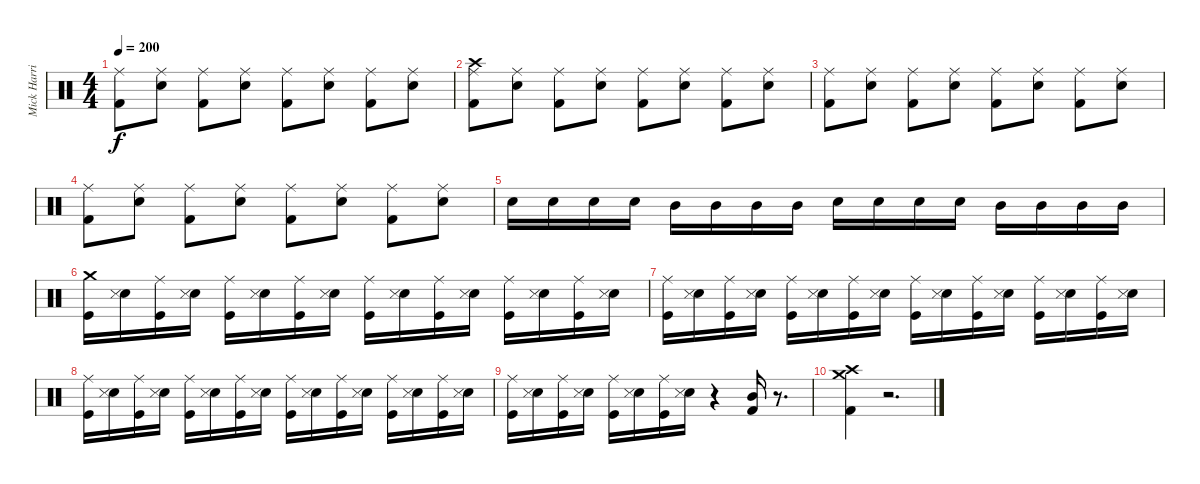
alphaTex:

\track ("Mick Harris (Drums)" "Mick Harri") {instrument percussion}
\staff {score}
\articulation defaults
\ts (4 4)
\tempo 200
\clef neutral
\ks c
("Kick (hit) 2" "Ride (middle)").8{dy f} ("Electric Snare (hit)" "Ride (middle)").8 ("Kick (hit) 2" "Ride (middle)").8 ("Electric Snare (hit)" "Ride (middle)").8 ("Kick (hit) 2" "Ride (middle)").8 ("Electric Snare (hit)" "Ride (middle)").8 ("Kick (hit) 2" "Ride (middle)").8 ("Electric Snare (hit)" "Ride (middle)").8 |
("Kick (hit) 2" "Crash high (hit)" "Ride (middle)").8 ("Electric Snare (hit)" "Ride (middle)").8 ("Kick (hit) 2" "Ride (middle)").8 ("Electric Snare (hit)" "Ride (middle)").8 ("Kick (hit) 2" "Ride (middle)").8 ("Electric Snare (hit)" "Ride (middle)").8 ("Kick (hit) 2" "Ride (middle)").8 ("Electric Snare (hit)" "Ride (middle)").8 |
("Kick (hit) 2" "Ride (middle)").8 ("Electric Snare (hit)" "Ride (middle)").8 ("Kick (hit) 2" "Ride (middle)").8 ("Electric Snare (hit)" "Ride (middle)").8 ("Kick (hit) 2" "Ride (middle)").8 ("Electric Snare (hit)" "Ride (middle)").8 ("Kick (hit) 2" "Ride (middle)").8 ("Electric Snare (hit)" "Ride (middle)").8 |
("Kick (hit) 2" "Ride (middle)").8 ("Electric Snare (hit)" "Ride (middle)").8 ("Kick (hit) 2" "Ride (middle)").8 ("Electric Snare (hit)" "Ride (middle)").8 ("Kick (hit) 2" "Ride (middle)").8 ("Electric Snare (hit)" "Ride (middle)").8 ("Kick (hit) 2" "Ride (middle)").8 ("Electric Snare (hit)" "Ride (middle)").8 |
"Electric Snare (hit)".16 "Electric Snare (hit)".16 "Electric Snare (hit)".16 "Electric Snare (hit)".16 "Mid Tom (hit)".16 "Mid Tom (hit)".16 "Mid Tom (hit)".16 "Mid Tom (hit)".16 "Electric Snare (hit)".16 "Electric Snare (hit)".16 "Electric Snare (hit)".16 "Electric Snare (hit)".16 "Mid Tom (hit)".16 "Mid Tom (hit)".16 "Mid Tom (hit)".16 "Mid Tom (hit)".16 |
("Kick (hit)" "Crash medium (hit)").16 ("Electric Snare (hit)" "Snare (side stick) 3").16 ("Kick (hit)" "Ride (middle)").16 ("Electric Snare (hit)" "Snare (side stick) 3").16 ("Kick (hit)" "Ride (middle)").16 ("Electric Snare (hit)" "Snare (side stick) 3").16 ("Kick (hit)" "Ride (middle)").16 ("Electric Snare (hit)" "Snare (side stick) 3").16 ("Kick (hit)" "Ride (middle)").16 ("Electric Snare (hit)" "Snare (side stick) 3").16 ("Kick (hit)" "Ride (middle)").16 ("Electric Snare (hit)" "Snare (side stick) 3").16 ("Kick (hit)" "Ride (middle)").16 ("Electric Snare (hit)" "Snare (side stick) 3").16 ("Kick (hit)" "Ride (middle)").16 ("Electric Snare (hit)" "Snare (side stick) 3").16 |
("Kick (hit)" "Ride (middle)").16 ("Electric Snare (hit)" "Snare (side stick) 3").16 ("Kick (hit)" "Ride (middle)").16 ("Electric Snare (hit)" "Snare (side stick) 3").16 ("Kick (hit)" "Ride (middle)").16 ("Electric Snare (hit)" "Snare (side stick) 3").16 ("Kick (hit)" "Ride (middle)").16 ("Electric Snare (hit)" "Snare (side stick) 3").16 ("Kick (hit)" "Ride (middle)").16 ("Electric Snare (hit)" "Snare (side stick) 3").16 ("Kick (hit)" "Ride (middle)").16 ("Electric Snare (hit)" "Snare (side stick) 3").16 ("Kick (hit)" "Ride (middle)").16 ("Electric Snare (hit)" "Snare (side stick) 3").16 ("Kick (hit)" "Ride (middle)").16 ("Electric Snare (hit)" "Snare (side stick) 3").16 |
("Kick (hit)" "Ride (middle)").16 ("Electric Snare (hit)" "Snare (side stick) 3").16 ("Kick (hit)" "Ride (middle)").16 ("Electric Snare (hit)" "Snare (side stick) 3").16 ("Kick (hit)" "Ride (middle)").16 ("Electric Snare (hit)" "Snare (side stick) 3").16 ("Kick (hit)" "Ride (middle)").16 ("Electric Snare (hit)" "Snare (side stick) 3").16 ("Kick (hit)" "Ride (middle)").16 ("Electric Snare (hit)" "Snare (side stick) 3").16 ("Kick (hit)" "Ride (middle)").16 ("Electric Snare (hit)" "Snare (side stick) 3").16 ("Kick (hit)" "Ride (middle)").16 ("Electric Snare (hit)" "Snare (side stick) 3").16 ("Kick (hit)" "Ride (middle)").16 ("Electric Snare (hit)" "Snare (side stick) 3").16 |
("Kick (hit)" "Ride (middle)").16 ("Electric Snare (hit)" "Snare (side stick) 3").16 ("Kick (hit)" "Ride (middle)").16 ("Electric Snare (hit)" "Snare (side stick) 3").16 ("Kick (hit)" "Ride (middle)").16 ("Electric Snare (hit)" "Snare (side stick) 3").16 ("Kick (hit)" "Ride (middle)").16 ("Electric Snare (hit)" "Snare (side stick) 3").16 r.4 ("Mid Tom (hit)" "Kick (hit) 2").16 r.8{d} |
("Kick (hit) 2" "Crash medium (hit)" "Crash high (hit)").4 r.2{d}
